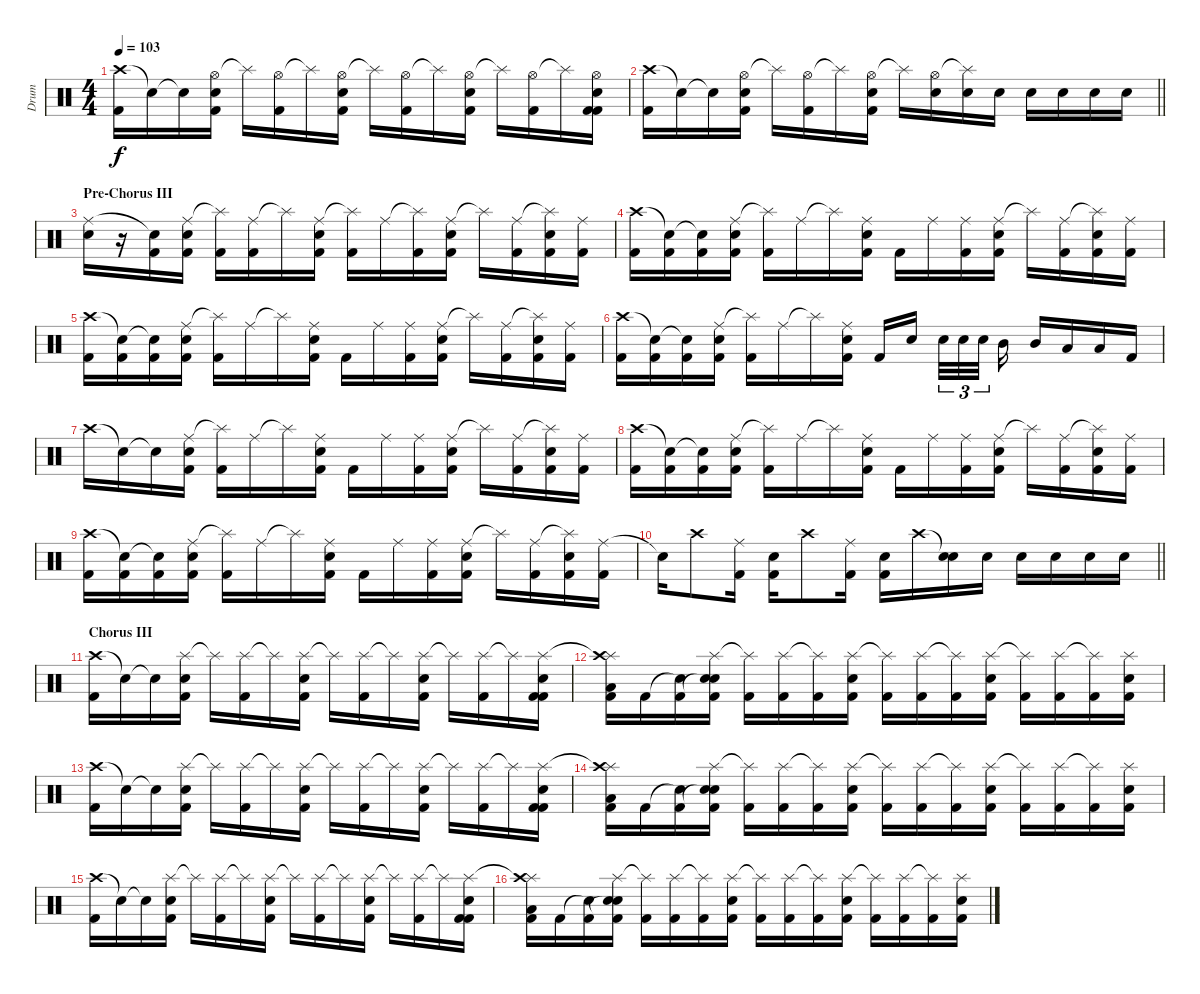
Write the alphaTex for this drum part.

\track ("Drum" "Drum") {instrument percussion}
\staff {score}
\articulation defaults
\ts (4 4)
\tempo 103
\clef neutral
\ks c
("Crash high (hit)" "Kick (hit) 2").16{dy f} "Snare (hit)"{t}.16 "Snare (hit)"{t}.16 ("Hi-Hat (open)" "Electric Snare (hit)" "Kick (hit) 2").16 "Splash (hit)"{t}.16 ("Hi-Hat (open)" "Kick (hit) 2").16 "Splash (hit)"{t}.16 ("Hi-Hat (open)" "Electric Snare (hit)" "Kick (hit) 2").16 "Splash (hit)"{t}.16 ("Hi-Hat (open)" "Kick (hit) 2").16 "Splash (hit)"{t}.16 ("Hi-Hat (open)" "Electric Snare (hit)" "Kick (hit) 2").16 "Splash (hit)"{t}.16 ("Hi-Hat (open)" "Kick (hit) 2").16 "Splash (hit)"{t}.16 ("Hi-Hat (open)" "Electric Snare (hit)" "Kick (hit) 2" "Kick (hit) 2").16 |
\barLineRight lightlight
("Crash high (hit)" "Kick (hit) 2").16 "Snare (hit)"{t}.16 "Snare (hit)"{t}.16 ("Hi-Hat (open)" "Electric Snare (hit)" "Kick (hit) 2").16 "Splash (hit)"{t}.16 ("Hi-Hat (open)" "Kick (hit) 2").16 "Splash (hit)"{t}.16 ("Hi-Hat (open)" "Electric Snare (hit)" "Kick (hit) 2").16 "Splash (hit)"{t}.16 ("Hi-Hat (open)" "Electric Snare (hit)").16 ("Splash (hit)"{t} "Electric Snare (hit)").16 "Electric Snare (hit)".16 "Electric Snare (hit)".16 "Electric Snare (hit)".16 "Electric Snare (hit)".16 "Electric Snare (hit)".16 |
\section ("" "Pre-Chorus III")
("Ride (middle)" "Electric Snare (hit)").16 r.16 ("Snare (hit)"{t} "Kick (hit) 2").16 ("Ride (middle)" "Electric Snare (hit)" "Kick (hit) 2").16 ("Splash (hit)"{t} "Kick (hit) 2").16 ("Ride (middle)" "Kick (hit) 2").16 "Splash (hit)"{t}.16 ("Ride (middle)" "Electric Snare (hit)" "Kick (hit) 2").16 ("Splash (hit)"{t} "Kick (hit) 2").16 "Ride (middle)".16 ("Splash (hit)"{t} "Kick (hit) 2").16 ("Ride (middle)" "Electric Snare (hit)" "Kick (hit) 2").16 "Splash (hit)"{t}.16 ("Ride (middle)" "Kick (hit) 2").16 ("Splash (hit)"{t} "Electric Snare (hit)" "Kick (hit) 2").16 ("Ride (middle)" "Kick (hit) 2").16 |
("Crash high (hit)" "Kick (hit) 2").16 ("Snare (hit)"{t} "Kick (hit) 2").16 ("Snare (hit)"{t} "Kick (hit) 2").16 ("Ride (middle)" "Electric Snare (hit)" "Kick (hit) 2").16 ("Splash (hit)"{t} "Kick (hit) 2").16 "Ride (middle)".16 "Splash (hit)"{t}.16 ("Ride (middle)" "Electric Snare (hit)" "Kick (hit) 2").16 "Kick (hit) 2".16 "Ride (middle)".16 ("Ride (middle)" "Kick (hit) 2").16 ("Ride (middle)" "Electric Snare (hit)" "Kick (hit) 2").16 "Splash (hit)"{t}.16 ("Ride (middle)" "Kick (hit) 2").16 ("Splash (hit)"{t} "Electric Snare (hit)" "Kick (hit) 2").16 ("Ride (middle)" "Kick (hit) 2").16 |
("Crash high (hit)" "Kick (hit) 2").16 ("Snare (hit)"{t} "Kick (hit) 2").16 ("Snare (hit)"{t} "Kick (hit) 2").16 ("Ride (middle)" "Electric Snare (hit)" "Kick (hit) 2").16 ("Splash (hit)"{t} "Kick (hit) 2").16 "Ride (middle)".16 "Splash (hit)"{t}.16 ("Ride (middle)" "Electric Snare (hit)" "Kick (hit) 2").16 "Kick (hit) 2".16 "Ride (middle)".16 ("Ride (middle)" "Kick (hit) 2").16 ("Ride (middle)" "Electric Snare (hit)" "Kick (hit) 2").16 "Splash (hit)"{t}.16 ("Ride (middle)" "Kick (hit) 2").16 ("Splash (hit)"{t} "Electric Snare (hit)" "Kick (hit) 2").16 ("Ride (middle)" "Kick (hit) 2").16 |
("Crash high (hit)" "Kick (hit) 2").16 ("Snare (hit)"{t} "Kick (hit) 2").16 ("Snare (hit)"{t} "Kick (hit) 2").16 ("Ride (middle)" "Electric Snare (hit)" "Kick (hit) 2").16 ("Splash (hit)"{t} "Kick (hit) 2").16 "Ride (middle)".16 "Splash (hit)"{t}.16 ("Ride (middle)" "Electric Snare (hit)" "Kick (hit) 2").16 "Kick (hit) 2".16 "Electric Snare (hit)".16{beam splitsecondary} "Electric Snare (hit)".32{tu (3 2)} "Electric Snare (hit)".32{tu (3 2)} "Electric Snare (hit)".32{tu (3 2) beam splitsecondary} "Mid Tom (hit)".16 "Mid Tom (hit)".16 "Low Tom (hit)".16 "Low Tom (hit)".16 "Kick (hit) 2".16 |
"Crash high (hit)".16 "Snare (hit)"{t}.16 "Snare (hit)"{t}.16 ("Ride (middle)" "Electric Snare (hit)" "Kick (hit) 2").16 ("Splash (hit)"{t} "Kick (hit) 2").16 "Ride (middle)".16 "Splash (hit)"{t}.16 ("Ride (middle)" "Electric Snare (hit)" "Kick (hit) 2").16 "Kick (hit) 2".16 "Ride (middle)".16 ("Ride (middle)" "Kick (hit) 2").16 ("Ride (middle)" "Electric Snare (hit)" "Kick (hit) 2").16 "Splash (hit)"{t}.16 ("Ride (middle)" "Kick (hit) 2").16 ("Splash (hit)"{t} "Electric Snare (hit)" "Kick (hit) 2").16 ("Ride (middle)" "Kick (hit) 2").16 |
("Crash high (hit)" "Kick (hit) 2").16 ("Snare (hit)"{t} "Kick (hit) 2").16 ("Snare (hit)"{t} "Kick (hit) 2").16 ("Ride (middle)" "Electric Snare (hit)" "Kick (hit) 2").16 ("Splash (hit)"{t} "Kick (hit) 2").16 "Ride (middle)".16 "Splash (hit)"{t}.16 ("Ride (middle)" "Electric Snare (hit)" "Kick (hit) 2").16 "Kick (hit) 2".16 "Ride (middle)".16 ("Ride (middle)" "Kick (hit) 2").16 ("Ride (middle)" "Electric Snare (hit)" "Kick (hit) 2").16 "Splash (hit)"{t}.16 ("Ride (middle)" "Kick (hit) 2").16 ("Splash (hit)"{t} "Electric Snare (hit)" "Kick (hit) 2").16 ("Ride (middle)" "Kick (hit) 2").16 |
("Crash high (hit)" "Kick (hit) 2").16 ("Snare (hit)"{t} "Kick (hit) 2").16 ("Snare (hit)"{t} "Kick (hit) 2").16 ("Ride (middle)" "Electric Snare (hit)" "Kick (hit) 2").16 ("Splash (hit)"{t} "Kick (hit) 2").16 "Ride (middle)".16 "Splash (hit)"{t}.16 ("Ride (middle)" "Electric Snare (hit)" "Kick (hit) 2").16 "Kick (hit) 2".16 "Ride (middle)".16 ("Ride (middle)" "Kick (hit) 2").16 ("Ride (middle)" "Electric Snare (hit)" "Kick (hit) 2").16 "Splash (hit)"{t}.16 ("Ride (middle)" "Kick (hit) 2").16 ("Splash (hit)"{t} "Electric Snare (hit)" "Kick (hit) 2").16 ("Ride (middle)" "Kick (hit) 2").16 |
\barLineRight lightlight "Snare (hit)"{t}.16 "Crash high (hit)".8
("Ride (middle)" "Kick (hit) 2").16 ("Electric Snare (hit)" "Kick (hit) 2").16 "Crash high (hit)".8 ("Ride (middle)" "Kick (hit) 2").16 ("Electric Snare (hit)" "Kick (hit) 2").16 "Crash high (hit)".16 ("Snare (hit)"{t} "Electric Snare (hit)").16 "Electric Snare (hit)".16 "Electric Snare (hit)".16 "Electric Snare (hit)".16 "Electric Snare (hit)".16 "Electric Snare (hit)".16 |
\section ("" "Chorus III")
("Crash high (hit)" "Kick (hit) 2").16 "Snare (hit)"{t}.16 "Snare (hit)"{t}.16 ("Splash (hit)" "Electric Snare (hit)" "Kick (hit) 2").16 "Splash (hit)"{t}.16 ("Splash (hit)" "Kick (hit) 2").16 "Splash (hit)"{t}.16 ("Splash (hit)" "Electric Snare (hit)" "Kick (hit) 2").16 "Splash (hit)"{t}.16 ("Splash (hit)" "Kick (hit) 2").16 "Splash (hit)"{t}.16 ("Splash (hit)" "Electric Snare (hit)" "Kick (hit) 2").16 "Splash (hit)"{t}.16 ("Splash (hit)" "Kick (hit) 2").16 "Splash (hit)"{t}.16 ("Splash (hit)" "Electric Snare (hit)" "Kick (hit) 2" "Kick (hit) 2").16 |
("Splash (hit)"{t} "Crash high (hit)" "Low Tom (hit)" "Kick (hit) 2").16 "Kick (hit) 2".16 ("Snare (hit)"{t} "Kick (hit) 2").16 ("Splash (hit)" "Snare (hit)"{t} "Electric Snare (hit)" "Kick (hit) 2").16 ("Splash (hit)"{t} "Kick (hit) 2").16 ("Splash (hit)" "Kick (hit) 2").16 ("Splash (hit)"{t} "Kick (hit) 2").16 ("Splash (hit)" "Electric Snare (hit)" "Kick (hit) 2").16 ("Splash (hit)"{t} "Kick (hit) 2").16 ("Splash (hit)" "Kick (hit) 2").16 ("Splash (hit)"{t} "Kick (hit) 2").16 ("Splash (hit)" "Electric Snare (hit)" "Kick (hit) 2").16 ("Splash (hit)"{t} "Kick (hit) 2").16 ("Splash (hit)" "Kick (hit) 2").16 ("Splash (hit)"{t} "Kick (hit) 2").16 ("Splash (hit)" "Electric Snare (hit)" "Kick (hit) 2").16 |
("Crash high (hit)" "Kick (hit) 2").16 "Snare (hit)"{t}.16 "Snare (hit)"{t}.16 ("Splash (hit)" "Electric Snare (hit)" "Kick (hit) 2").16 "Splash (hit)"{t}.16 ("Splash (hit)" "Kick (hit) 2").16 "Splash (hit)"{t}.16 ("Splash (hit)" "Electric Snare (hit)" "Kick (hit) 2").16 "Splash (hit)"{t}.16 ("Splash (hit)" "Kick (hit) 2").16 "Splash (hit)"{t}.16 ("Splash (hit)" "Electric Snare (hit)" "Kick (hit) 2").16 "Splash (hit)"{t}.16 ("Splash (hit)" "Kick (hit) 2").16 "Splash (hit)"{t}.16 ("Splash (hit)" "Electric Snare (hit)" "Kick (hit) 2" "Kick (hit) 2").16 |
("Splash (hit)"{t} "Crash high (hit)" "Low Tom (hit)" "Kick (hit) 2").16 "Kick (hit) 2".16 ("Snare (hit)"{t} "Kick (hit) 2").16 ("Splash (hit)" "Snare (hit)"{t} "Electric Snare (hit)" "Kick (hit) 2").16 ("Splash (hit)"{t} "Kick (hit) 2").16 ("Splash (hit)" "Kick (hit) 2").16 ("Splash (hit)"{t} "Kick (hit) 2").16 ("Splash (hit)" "Electric Snare (hit)" "Kick (hit) 2").16 ("Splash (hit)"{t} "Kick (hit) 2").16 ("Splash (hit)" "Kick (hit) 2").16 ("Splash (hit)"{t} "Kick (hit) 2").16 ("Splash (hit)" "Electric Snare (hit)" "Kick (hit) 2").16 ("Splash (hit)"{t} "Kick (hit) 2").16 ("Splash (hit)" "Kick (hit) 2").16 ("Splash (hit)"{t} "Kick (hit) 2").16 ("Splash (hit)" "Electric Snare (hit)" "Kick (hit) 2").16 |
("Crash high (hit)" "Kick (hit) 2").16 "Snare (hit)"{t}.16 "Snare (hit)"{t}.16 ("Splash (hit)" "Electric Snare (hit)" "Kick (hit) 2").16 "Splash (hit)"{t}.16 ("Splash (hit)" "Kick (hit) 2").16 "Splash (hit)"{t}.16 ("Splash (hit)" "Electric Snare (hit)" "Kick (hit) 2").16 "Splash (hit)"{t}.16 ("Splash (hit)" "Kick (hit) 2").16 "Splash (hit)"{t}.16 ("Splash (hit)" "Electric Snare (hit)" "Kick (hit) 2").16 "Splash (hit)"{t}.16 ("Splash (hit)" "Kick (hit) 2").16 "Splash (hit)"{t}.16 ("Splash (hit)" "Electric Snare (hit)" "Kick (hit) 2" "Kick (hit) 2").16 |
("Splash (hit)"{t} "Crash high (hit)" "Low Tom (hit)" "Kick (hit) 2").16 "Kick (hit) 2".16 ("Snare (hit)"{t} "Kick (hit) 2").16 ("Splash (hit)" "Snare (hit)"{t} "Electric Snare (hit)" "Kick (hit) 2").16 ("Splash (hit)"{t} "Kick (hit) 2").16 ("Splash (hit)" "Kick (hit) 2").16 ("Splash (hit)"{t} "Kick (hit) 2").16 ("Splash (hit)" "Electric Snare (hit)" "Kick (hit) 2").16 ("Splash (hit)"{t} "Kick (hit) 2").16 ("Splash (hit)" "Kick (hit) 2").16 ("Splash (hit)"{t} "Kick (hit) 2").16 ("Splash (hit)" "Electric Snare (hit)" "Kick (hit) 2").16 ("Splash (hit)"{t} "Kick (hit) 2").16 ("Splash (hit)" "Kick (hit) 2").16 ("Splash (hit)"{t} "Kick (hit) 2").16 ("Splash (hit)" "Electric Snare (hit)" "Kick (hit) 2").16
